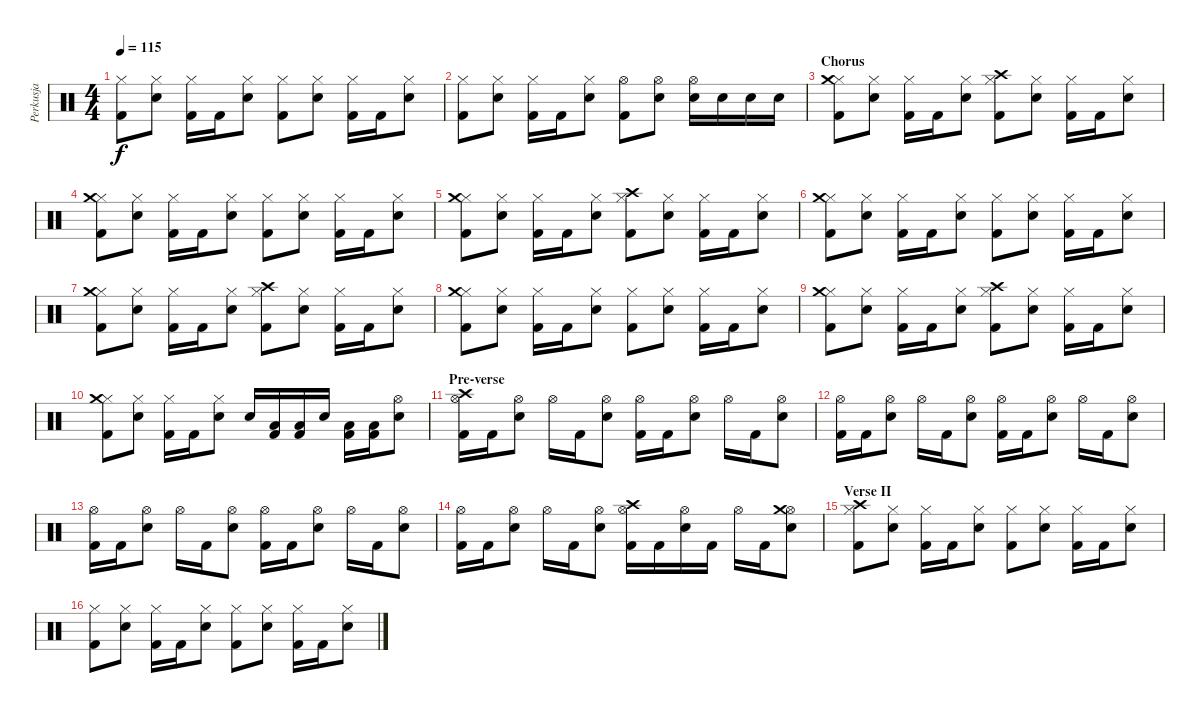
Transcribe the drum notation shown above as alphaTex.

\track ("Perkusja" "Perkusja") {instrument percussion}
\staff {score}
\articulation defaults
\ts (4 4)
\tempo 115
\clef neutral
\ks c
("Hi-Hat (closed)" "Kick (hit) 2").8{dy f} ("Hi-Hat (closed)" "Electric Snare (hit)").8 ("Hi-Hat (closed)" "Kick (hit) 2").16 "Kick (hit) 2".16 ("Hi-Hat (closed)" "Electric Snare (hit)").8 ("Hi-Hat (closed)" "Kick (hit) 2").8 ("Hi-Hat (closed)" "Electric Snare (hit)").8 ("Hi-Hat (closed)" "Kick (hit) 2").16 "Kick (hit) 2".16 ("Hi-Hat (closed)" "Electric Snare (hit)").8 |
("Hi-Hat (closed)" "Kick (hit) 2").8 ("Hi-Hat (closed)" "Electric Snare (hit)").8 ("Hi-Hat (closed)" "Kick (hit) 2").16 "Kick (hit) 2".16 ("Hi-Hat (closed)" "Electric Snare (hit)").8 ("Hi-Hat (open)" "Kick (hit) 2").8 ("Hi-Hat (open)" "Electric Snare (hit)").8 ("Hi-Hat (open)" "Electric Snare (hit)").16 "Electric Snare (hit)".16 "Electric Snare (hit)".16 "Electric Snare (hit)".16 |
\section ("" "Chorus")
("Hi-Hat (closed)" "Kick (hit) 2" "Crash medium (hit)").8 ("Hi-Hat (closed)" "Electric Snare (hit)").8 ("Hi-Hat (closed)" "Kick (hit) 2").16 "Kick (hit) 2".16 ("Hi-Hat (closed)" "Electric Snare (hit)").8 ("Hi-Hat (closed)" "Kick (hit) 2" "Crash high (hit)").8 ("Hi-Hat (closed)" "Electric Snare (hit)").8 ("Hi-Hat (closed)" "Kick (hit) 2").16 "Kick (hit) 2".16 ("Hi-Hat (closed)" "Electric Snare (hit)").8 |
("Hi-Hat (closed)" "Kick (hit) 2" "Crash medium (hit)").8 ("Hi-Hat (closed)" "Electric Snare (hit)").8 ("Hi-Hat (closed)" "Kick (hit) 2").16 "Kick (hit) 2".16 ("Hi-Hat (closed)" "Electric Snare (hit)").8 ("Hi-Hat (closed)" "Kick (hit) 2").8 ("Hi-Hat (closed)" "Electric Snare (hit)").8 ("Hi-Hat (closed)" "Kick (hit) 2").16 "Kick (hit) 2".16 ("Hi-Hat (closed)" "Electric Snare (hit)").8 |
("Hi-Hat (closed)" "Kick (hit) 2" "Crash medium (hit)").8 ("Hi-Hat (closed)" "Electric Snare (hit)").8 ("Hi-Hat (closed)" "Kick (hit) 2").16 "Kick (hit) 2".16 ("Hi-Hat (closed)" "Electric Snare (hit)").8 ("Hi-Hat (closed)" "Kick (hit) 2" "Crash high (hit)").8 ("Hi-Hat (closed)" "Electric Snare (hit)").8 ("Hi-Hat (closed)" "Kick (hit) 2").16 "Kick (hit) 2".16 ("Hi-Hat (closed)" "Electric Snare (hit)").8 |
("Hi-Hat (closed)" "Kick (hit) 2" "Crash medium (hit)").8 ("Hi-Hat (closed)" "Electric Snare (hit)").8 ("Hi-Hat (closed)" "Kick (hit) 2").16 "Kick (hit) 2".16 ("Hi-Hat (closed)" "Electric Snare (hit)").8 ("Hi-Hat (closed)" "Kick (hit) 2").8 ("Hi-Hat (closed)" "Electric Snare (hit)").8 ("Hi-Hat (closed)" "Kick (hit) 2").16 "Kick (hit) 2".16 ("Hi-Hat (closed)" "Electric Snare (hit)").8 |
("Hi-Hat (closed)" "Kick (hit) 2" "Crash medium (hit)").8 ("Hi-Hat (closed)" "Electric Snare (hit)").8 ("Hi-Hat (closed)" "Kick (hit) 2").16 "Kick (hit) 2".16 ("Hi-Hat (closed)" "Electric Snare (hit)").8 ("Hi-Hat (closed)" "Kick (hit) 2" "Crash high (hit)").8 ("Hi-Hat (closed)" "Electric Snare (hit)").8 ("Hi-Hat (closed)" "Kick (hit) 2").16 "Kick (hit) 2".16 ("Hi-Hat (closed)" "Electric Snare (hit)").8 |
("Hi-Hat (closed)" "Kick (hit) 2" "Crash medium (hit)").8 ("Hi-Hat (closed)" "Electric Snare (hit)").8 ("Hi-Hat (closed)" "Kick (hit) 2").16 "Kick (hit) 2".16 ("Hi-Hat (closed)" "Electric Snare (hit)").8 ("Hi-Hat (closed)" "Kick (hit) 2").8 ("Hi-Hat (closed)" "Electric Snare (hit)").8 ("Hi-Hat (closed)" "Kick (hit) 2").16 "Kick (hit) 2".16 ("Hi-Hat (closed)" "Electric Snare (hit)").8 |
("Hi-Hat (closed)" "Kick (hit) 2" "Crash medium (hit)").8 ("Hi-Hat (closed)" "Electric Snare (hit)").8 ("Hi-Hat (closed)" "Kick (hit) 2").16 "Kick (hit) 2".16 ("Hi-Hat (closed)" "Electric Snare (hit)").8 ("Hi-Hat (closed)" "Kick (hit) 2" "Crash high (hit)").8 ("Hi-Hat (closed)" "Electric Snare (hit)").8 ("Hi-Hat (closed)" "Kick (hit) 2").16 "Kick (hit) 2".16 ("Hi-Hat (closed)" "Electric Snare (hit)").8 |
("Hi-Hat (closed)" "Kick (hit) 2" "Crash medium (hit)").8 ("Hi-Hat (closed)" "Electric Snare (hit)").8 ("Hi-Hat (closed)" "Kick (hit) 2").16 "Kick (hit) 2".16 ("Hi-Hat (closed)" "Electric Snare (hit)").8 "Electric Snare (hit)".16 ("Low Tom (hit)" "Kick (hit) 2").16 ("Low Tom (hit)" "Kick (hit) 2").16 "Electric Snare (hit)".16 ("Low Tom (hit)" "Kick (hit) 2").16 ("Low Tom (hit)" "Kick (hit) 2").16 ("Electric Snare (hit)" "Hi-Hat (open)").8 |
\section ("" "Pre-verse")
("Hi-Hat (open)" "Kick (hit) 2" "Crash high (hit)").16 "Kick (hit) 2".16 ("Hi-Hat (open)" "Electric Snare (hit)").8 "Hi-Hat (open)".16 "Kick (hit) 2".16 ("Hi-Hat (open)" "Electric Snare (hit)").8 ("Hi-Hat (open)" "Kick (hit) 2").16 "Kick (hit) 2".16 ("Hi-Hat (open)" "Electric Snare (hit)").8 "Hi-Hat (open)".16 "Kick (hit) 2".16 ("Hi-Hat (open)" "Electric Snare (hit)").8 |
("Hi-Hat (open)" "Kick (hit) 2").16 "Kick (hit) 2".16 ("Hi-Hat (open)" "Electric Snare (hit)").8 "Hi-Hat (open)".16 "Kick (hit) 2".16 ("Hi-Hat (open)" "Electric Snare (hit)").8 ("Hi-Hat (open)" "Kick (hit) 2").16 "Kick (hit) 2".16 ("Hi-Hat (open)" "Electric Snare (hit)").8 "Hi-Hat (open)".16 "Kick (hit) 2".16 ("Hi-Hat (open)" "Electric Snare (hit)").8 |
("Hi-Hat (open)" "Kick (hit) 2").16 "Kick (hit) 2".16 ("Hi-Hat (open)" "Electric Snare (hit)").8 "Hi-Hat (open)".16 "Kick (hit) 2".16 ("Hi-Hat (open)" "Electric Snare (hit)").8 ("Hi-Hat (open)" "Kick (hit) 2").16 "Kick (hit) 2".16 ("Hi-Hat (open)" "Electric Snare (hit)").8 "Hi-Hat (open)".16 "Kick (hit) 2".16 ("Hi-Hat (open)" "Electric Snare (hit)").8 |
("Hi-Hat (open)" "Kick (hit) 2").16 "Kick (hit) 2".16 ("Hi-Hat (open)" "Electric Snare (hit)").8 "Hi-Hat (open)".16 "Kick (hit) 2".16 ("Hi-Hat (open)" "Electric Snare (hit)").8 ("Hi-Hat (open)" "Kick (hit) 2" "Crash high (hit)").16 "Kick (hit) 2".16 ("Hi-Hat (open)" "Electric Snare (hit)").16 "Kick (hit) 2".16 "Hi-Hat (open)".16 "Kick (hit) 2".16 ("Hi-Hat (open)" "Electric Snare (hit)" "Crash medium (hit)").8 |
\section ("" "Verse II")
("Hi-Hat (closed)" "Kick (hit) 2" "Crash high (hit)").8 ("Hi-Hat (closed)" "Electric Snare (hit)").8 ("Hi-Hat (closed)" "Kick (hit) 2").16 "Kick (hit) 2".16 ("Hi-Hat (closed)" "Electric Snare (hit)").8 ("Hi-Hat (closed)" "Kick (hit) 2").8 ("Hi-Hat (closed)" "Electric Snare (hit)").8 ("Hi-Hat (closed)" "Kick (hit) 2").16 "Kick (hit) 2".16 ("Hi-Hat (closed)" "Electric Snare (hit)").8 |
("Hi-Hat (closed)" "Kick (hit) 2").8 ("Hi-Hat (closed)" "Electric Snare (hit)").8 ("Hi-Hat (closed)" "Kick (hit) 2").16 "Kick (hit) 2".16 ("Hi-Hat (closed)" "Electric Snare (hit)").8 ("Hi-Hat (closed)" "Kick (hit) 2").8 ("Hi-Hat (closed)" "Electric Snare (hit)").8 ("Hi-Hat (closed)" "Kick (hit) 2").16 "Kick (hit) 2".16 ("Hi-Hat (closed)" "Electric Snare (hit)").8
